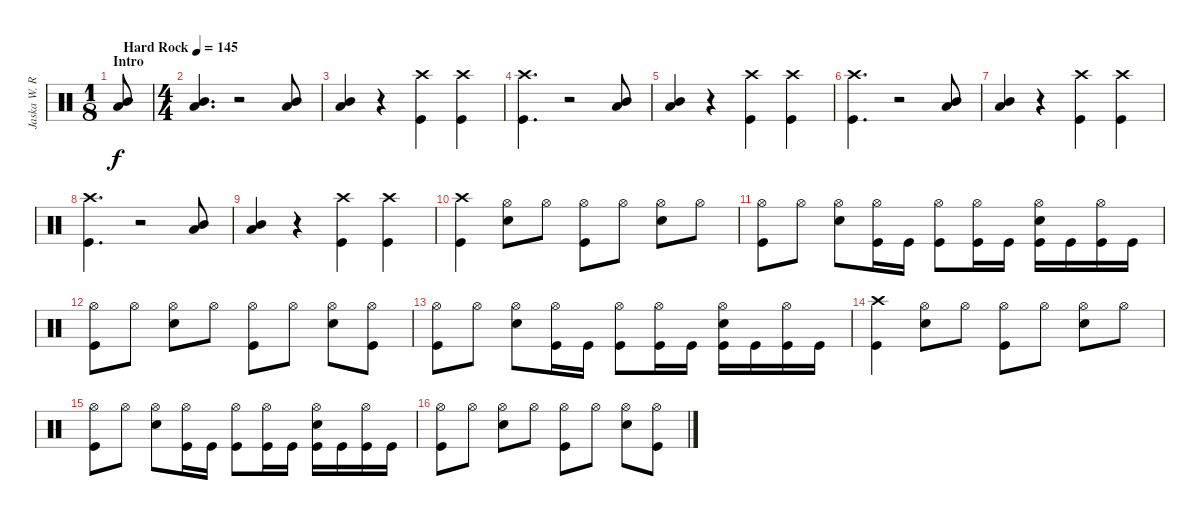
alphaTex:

\track ("Jaska W. Raatikainen" "Jaska W. R") {instrument percussion}
\staff {score}
\articulation defaults
\ts (1 8)
\section ("" "Intro")
\tempo (145 "Hard Rock")
\clef neutral
\ks c
("Low Tom (hit)" "Mid Tom (hit)").8{dy f} |
\ts (4 4)
("Low Tom (hit)" "Mid Tom (hit)").4{d} r.2 ("Low Tom (hit)" "Mid Tom (hit)").8 |
("Low Tom (hit)" "Mid Tom (hit)").4 r.4 ("Crash high (hit)" "Kick (hit)").4 ("Crash high (hit)" "Kick (hit)").4 |
("Crash high (hit)" "Kick (hit)").4{d} r.2 ("Low Tom (hit)" "Mid Tom (hit)").8 |
("Low Tom (hit)" "Mid Tom (hit)").4 r.4 ("Crash high (hit)" "Kick (hit)").4 ("Crash high (hit)" "Kick (hit)").4 |
("Crash high (hit)" "Kick (hit)").4{d} r.2 ("Low Tom (hit)" "Mid Tom (hit)").8 |
("Low Tom (hit)" "Mid Tom (hit)").4 r.4 ("Crash high (hit)" "Kick (hit)").4 ("Crash high (hit)" "Kick (hit)").4 |
("Crash high (hit)" "Kick (hit)").4{d} r.2 ("Low Tom (hit)" "Mid Tom (hit)").8 |
("Low Tom (hit)" "Mid Tom (hit)").4 r.4 ("Crash high (hit)" "Kick (hit)").4 ("Crash high (hit)" "Kick (hit)").4 |
("Crash high (hit)" "Kick (hit)").4 ("Hi-Hat (open)" "Snare (hit) 2").8 "Hi-Hat (open)".8 ("Hi-Hat (open)" "Kick (hit)").8 "Hi-Hat (open)".8 ("Hi-Hat (open)" "Snare (hit) 2").8 "Hi-Hat (open)".8 |
("Hi-Hat (open)" "Kick (hit)").8 "Hi-Hat (open)".8 ("Hi-Hat (open)" "Snare (hit) 2").8 ("Hi-Hat (open)" "Kick (hit)").16 "Kick (hit)".16 ("Hi-Hat (open)" "Kick (hit)").8 ("Hi-Hat (open)" "Kick (hit)").16 "Kick (hit)".16 ("Hi-Hat (open)" "Snare (hit) 2" "Kick (hit)").16 "Kick (hit)".16 ("Hi-Hat (open)" "Kick (hit)").16 "Kick (hit)".16 |
("Hi-Hat (open)" "Kick (hit)").8 "Hi-Hat (open)".8 ("Hi-Hat (open)" "Snare (hit) 2").8 "Hi-Hat (open)".8 ("Hi-Hat (open)" "Kick (hit)").8 "Hi-Hat (open)".8 ("Hi-Hat (open)" "Snare (hit) 2").8 ("Hi-Hat (open)" "Kick (hit)").8 |
("Hi-Hat (open)" "Kick (hit)").8 "Hi-Hat (open)".8 ("Hi-Hat (open)" "Snare (hit) 2").8 ("Hi-Hat (open)" "Kick (hit)").16 "Kick (hit)".16 ("Hi-Hat (open)" "Kick (hit)").8 ("Hi-Hat (open)" "Kick (hit)").16 "Kick (hit)".16 ("Hi-Hat (open)" "Snare (hit) 2" "Kick (hit)").16 "Kick (hit)".16 ("Hi-Hat (open)" "Kick (hit)").16 "Kick (hit)".16 |
("Crash high (hit)" "Kick (hit)").4 ("Hi-Hat (open)" "Snare (hit) 2").8 "Hi-Hat (open)".8 ("Hi-Hat (open)" "Kick (hit)").8 "Hi-Hat (open)".8 ("Hi-Hat (open)" "Snare (hit) 2").8 "Hi-Hat (open)".8 |
("Hi-Hat (open)" "Kick (hit)").8 "Hi-Hat (open)".8 ("Hi-Hat (open)" "Snare (hit) 2").8 ("Hi-Hat (open)" "Kick (hit)").16 "Kick (hit)".16 ("Hi-Hat (open)" "Kick (hit)").8 ("Hi-Hat (open)" "Kick (hit)").16 "Kick (hit)".16 ("Hi-Hat (open)" "Snare (hit) 2" "Kick (hit)").16 "Kick (hit)".16 ("Hi-Hat (open)" "Kick (hit)").16 "Kick (hit)".16 |
("Hi-Hat (open)" "Kick (hit)").8 "Hi-Hat (open)".8 ("Hi-Hat (open)" "Snare (hit) 2").8 "Hi-Hat (open)".8 ("Hi-Hat (open)" "Kick (hit)").8 "Hi-Hat (open)".8 ("Hi-Hat (open)" "Snare (hit) 2").8 ("Hi-Hat (open)" "Kick (hit)").8
